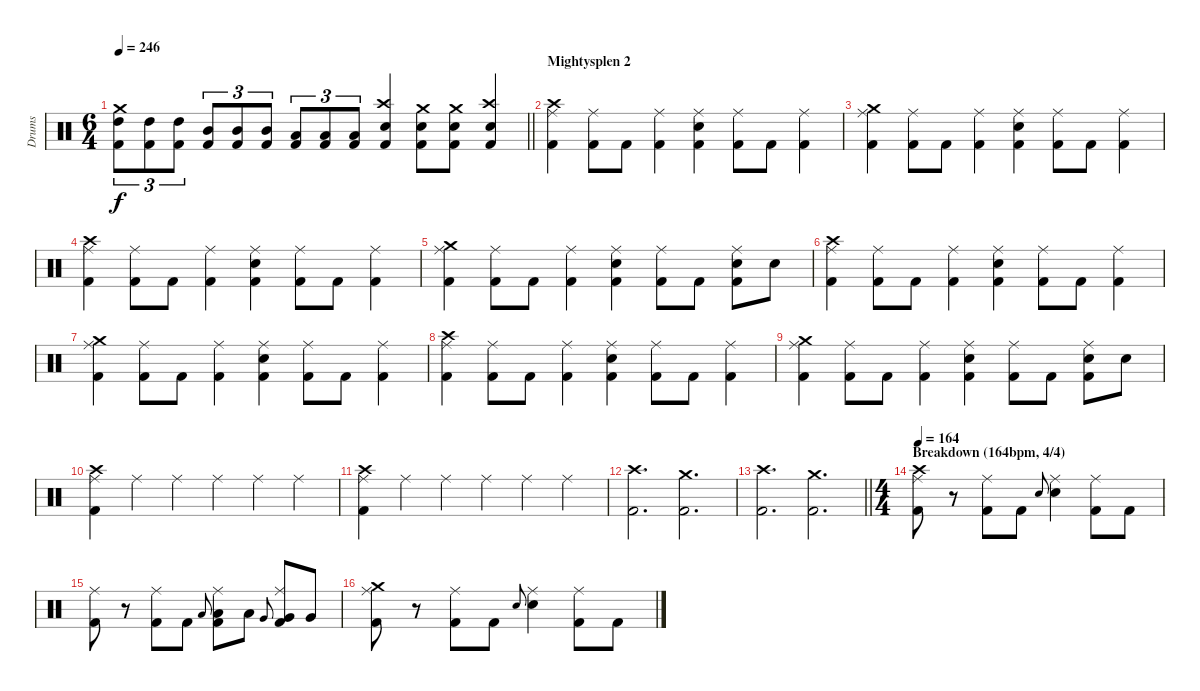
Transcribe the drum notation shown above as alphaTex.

\track ("Drums" "Drums") {instrument percussion}
\staff {score}
\articulation defaults
\ts (6 4)
\tempo 246
\clef neutral
\barLineRight lightlight
\ks c
("Crash medium (hit)" "High Tom (hit)" "Kick (hit) 2").8{tu (3 2) dy f} ("High Tom (hit)" "Kick (hit) 2").8{tu (3 2)} ("High Tom (hit)" "Kick (hit) 2").8{tu (3 2)} ("Mid Tom (hit)" "Kick (hit) 2").8{tu (3 2)} ("Mid Tom (hit)" "Kick (hit) 2").8{tu (3 2)} ("Mid Tom (hit)" "Kick (hit) 2").8{tu (3 2)} ("Low Tom (hit)" "Kick (hit) 2").8{tu (3 2)} ("Low Tom (hit)" "Kick (hit) 2").8{tu (3 2)} ("Low Tom (hit)" "Kick (hit) 2").8{tu (3 2)} ("Crash high (hit)" "Snare (hit) 2" "Kick (hit) 2").4 ("Crash medium (hit)" "Snare (hit) 2" "Kick (hit) 2").8 ("Crash medium (hit)" "Snare (hit) 2" "Kick (hit) 2").8 ("Crash high (hit)" "Snare (hit) 2" "Kick (hit) 2").4 |
\section ("" "Mightysplen 2")
("Crash high (hit)" "Ride (middle)" "Kick (hit) 2").4 ("Ride (middle)" "Kick (hit) 2").8 "Kick (hit) 2".8 ("Ride (middle)" "Kick (hit) 2").4 ("Ride (middle)" "Snare (hit) 2" "Kick (hit) 2").4 ("Ride (middle)" "Kick (hit) 2").8 "Kick (hit) 2".8 ("Ride (middle)" "Kick (hit) 2").4 |
("Crash medium (hit)" "Ride (middle)" "Kick (hit) 2").4 ("Ride (middle)" "Kick (hit) 2").8 "Kick (hit) 2".8 ("Ride (middle)" "Kick (hit) 2").4 ("Ride (middle)" "Snare (hit) 2" "Kick (hit) 2").4 ("Ride (middle)" "Kick (hit) 2").8 "Kick (hit) 2".8 ("Ride (middle)" "Kick (hit) 2").4 |
("Crash high (hit)" "Ride (middle)" "Kick (hit) 2").4 ("Ride (middle)" "Kick (hit) 2").8 "Kick (hit) 2".8 ("Ride (middle)" "Kick (hit) 2").4 ("Ride (middle)" "Snare (hit) 2" "Kick (hit) 2").4 ("Ride (middle)" "Kick (hit) 2").8 "Kick (hit) 2".8 ("Ride (middle)" "Kick (hit) 2").4 |
("Crash medium (hit)" "Ride (middle)" "Kick (hit) 2").4 ("Ride (middle)" "Kick (hit) 2").8 "Kick (hit) 2".8 ("Ride (middle)" "Kick (hit) 2").4 ("Ride (middle)" "Snare (hit) 2" "Kick (hit) 2").4 ("Ride (middle)" "Kick (hit) 2").8 "Kick (hit) 2".8 ("Ride (middle)" "Snare (hit) 2" "Kick (hit) 2").8 "Snare (hit) 2".8 |
("Crash high (hit)" "Ride (middle)" "Kick (hit) 2").4 ("Ride (middle)" "Kick (hit) 2").8 "Kick (hit) 2".8 ("Ride (middle)" "Kick (hit) 2").4 ("Ride (middle)" "Snare (hit) 2" "Kick (hit) 2").4 ("Ride (middle)" "Kick (hit) 2").8 "Kick (hit) 2".8 ("Ride (middle)" "Kick (hit) 2").4 |
("Crash medium (hit)" "Ride (middle)" "Kick (hit) 2").4 ("Ride (middle)" "Kick (hit) 2").8 "Kick (hit) 2".8 ("Ride (middle)" "Kick (hit) 2").4 ("Ride (middle)" "Snare (hit) 2" "Kick (hit) 2").4 ("Ride (middle)" "Kick (hit) 2").8 "Kick (hit) 2".8 ("Ride (middle)" "Kick (hit) 2").4 |
("Crash high (hit)" "Ride (middle)" "Kick (hit) 2").4 ("Ride (middle)" "Kick (hit) 2").8 "Kick (hit) 2".8 ("Ride (middle)" "Kick (hit) 2").4 ("Ride (middle)" "Snare (hit) 2" "Kick (hit) 2").4 ("Ride (middle)" "Kick (hit) 2").8 "Kick (hit) 2".8 ("Ride (middle)" "Kick (hit) 2").4 |
("Crash medium (hit)" "Ride (middle)" "Kick (hit) 2").4 ("Ride (middle)" "Kick (hit) 2").8 "Kick (hit) 2".8 ("Ride (middle)" "Kick (hit) 2").4 ("Ride (middle)" "Snare (hit) 2" "Kick (hit) 2").4 ("Ride (middle)" "Kick (hit) 2").8 "Kick (hit) 2".8 ("Ride (middle)" "Snare (hit) 2" "Kick (hit) 2").8 "Snare (hit) 2".8 |
("Crash high (hit)" "Ride (middle)" "Kick (hit) 2").4 "Ride (middle)".4 "Ride (middle)".4 "Ride (middle)".4 "Ride (middle)".4 "Ride (middle)".4 |
("Crash high (hit)" "Ride (middle)" "Kick (hit) 2").4 "Ride (middle)".4 "Ride (middle)".4 "Ride (middle)".4 "Ride (middle)".4 "Ride (middle)".4 |
("Crash high (hit)" "Kick (hit) 2").2{d} ("Crash medium (hit)" "Kick (hit) 2").2{d} |
\barLineRight lightlight
("Crash high (hit)" "Kick (hit) 2").2{d} ("Crash medium (hit)" "Kick (hit) 2").2{d} |
\ts (4 4)
\section ("" "Breakdown (164bpm, 4/4)")
\tempo 164
("Crash high (hit)" "Ride (middle)" "Kick (hit) 2").8 r.8 ("Ride (middle)" "Kick (hit) 2").8 "Kick (hit) 2".8 "Snare (hit) 2".8{gr onbeat} ("Ride (middle)" "Snare (hit) 2").4 ("Ride (middle)" "Kick (hit) 2").8 "Kick (hit) 2".8 |
("Ride (middle)" "Kick (hit) 2").8 r.8 ("Ride (middle)" "Kick (hit) 2").8 "Kick (hit) 2".8 "Low Tom (hit)".8{gr onbeat} ("Ride (middle)" "Low Tom (hit)" "Kick (hit) 2").8 "Low Tom (hit)".8 "Very Low Tom (hit)".8{gr onbeat} ("Ride (middle)" "Very Low Tom (hit)" "Kick (hit) 2").8 "Very Low Tom (hit)".8 |
("Crash medium (hit)" "Ride (middle)" "Kick (hit) 2").8 r.8 ("Ride (middle)" "Kick (hit) 2").8 "Kick (hit) 2".8 "Snare (hit) 2".8{gr onbeat} ("Ride (middle)" "Snare (hit) 2").4 ("Ride (middle)" "Kick (hit) 2").8 "Kick (hit) 2".8
